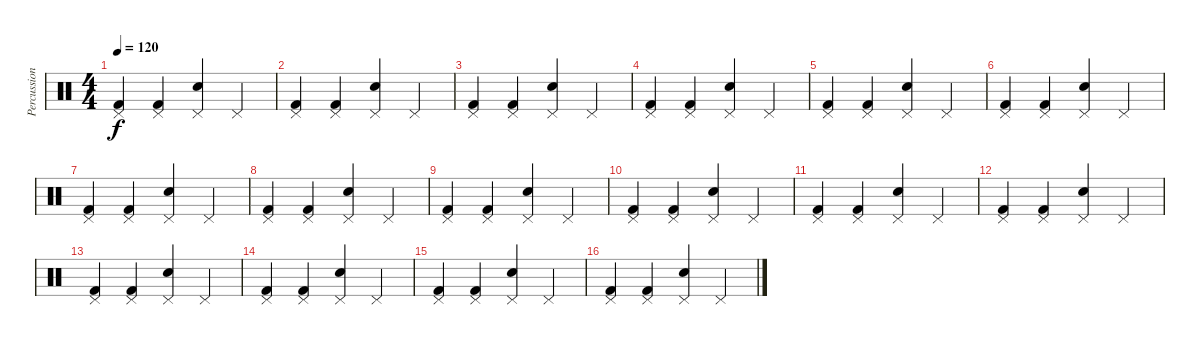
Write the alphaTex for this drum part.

\track ("Percussion" "Percussion") {instrument percussion}
\staff {score}
\articulation defaults
\ts (4 4)
\tempo 120
\clef neutral
\ks c
("Kick (hit) 2" "Pedal Hi-Hat (hit)").4{dy f} ("Kick (hit) 2" "Pedal Hi-Hat (hit)").4 ("Electric Snare (hit)" "Pedal Hi-Hat (hit)").4 "Pedal Hi-Hat (hit)".4 |
("Kick (hit) 2" "Pedal Hi-Hat (hit)").4 ("Kick (hit) 2" "Pedal Hi-Hat (hit)").4 ("Electric Snare (hit)" "Pedal Hi-Hat (hit)").4 "Pedal Hi-Hat (hit)".4 |
("Kick (hit) 2" "Pedal Hi-Hat (hit)").4 ("Kick (hit) 2" "Pedal Hi-Hat (hit)").4 ("Electric Snare (hit)" "Pedal Hi-Hat (hit)").4 "Pedal Hi-Hat (hit)".4 |
("Kick (hit) 2" "Pedal Hi-Hat (hit)").4 ("Kick (hit) 2" "Pedal Hi-Hat (hit)").4 ("Electric Snare (hit)" "Pedal Hi-Hat (hit)").4 "Pedal Hi-Hat (hit)".4 |
("Kick (hit) 2" "Pedal Hi-Hat (hit)").4 ("Kick (hit) 2" "Pedal Hi-Hat (hit)").4 ("Electric Snare (hit)" "Pedal Hi-Hat (hit)").4 "Pedal Hi-Hat (hit)".4 |
("Kick (hit) 2" "Pedal Hi-Hat (hit)").4 ("Kick (hit) 2" "Pedal Hi-Hat (hit)").4 ("Electric Snare (hit)" "Pedal Hi-Hat (hit)").4 "Pedal Hi-Hat (hit)".4 |
("Kick (hit) 2" "Pedal Hi-Hat (hit)").4 ("Kick (hit) 2" "Pedal Hi-Hat (hit)").4 ("Electric Snare (hit)" "Pedal Hi-Hat (hit)").4 "Pedal Hi-Hat (hit)".4 |
("Kick (hit) 2" "Pedal Hi-Hat (hit)").4 ("Kick (hit) 2" "Pedal Hi-Hat (hit)").4 ("Electric Snare (hit)" "Pedal Hi-Hat (hit)").4 "Pedal Hi-Hat (hit)".4 |
("Kick (hit) 2" "Pedal Hi-Hat (hit)").4 ("Kick (hit) 2" "Pedal Hi-Hat (hit)").4 ("Electric Snare (hit)" "Pedal Hi-Hat (hit)").4 "Pedal Hi-Hat (hit)".4 |
("Kick (hit) 2" "Pedal Hi-Hat (hit)").4 ("Kick (hit) 2" "Pedal Hi-Hat (hit)").4 ("Electric Snare (hit)" "Pedal Hi-Hat (hit)").4 "Pedal Hi-Hat (hit)".4 |
("Kick (hit) 2" "Pedal Hi-Hat (hit)").4 ("Kick (hit) 2" "Pedal Hi-Hat (hit)").4 ("Electric Snare (hit)" "Pedal Hi-Hat (hit)").4 "Pedal Hi-Hat (hit)".4 |
("Kick (hit) 2" "Pedal Hi-Hat (hit)").4 ("Kick (hit) 2" "Pedal Hi-Hat (hit)").4 ("Electric Snare (hit)" "Pedal Hi-Hat (hit)").4 "Pedal Hi-Hat (hit)".4 |
("Kick (hit) 2" "Pedal Hi-Hat (hit)").4 ("Kick (hit) 2" "Pedal Hi-Hat (hit)").4 ("Electric Snare (hit)" "Pedal Hi-Hat (hit)").4 "Pedal Hi-Hat (hit)".4 |
("Kick (hit) 2" "Pedal Hi-Hat (hit)").4 ("Kick (hit) 2" "Pedal Hi-Hat (hit)").4 ("Electric Snare (hit)" "Pedal Hi-Hat (hit)").4 "Pedal Hi-Hat (hit)".4 |
("Kick (hit) 2" "Pedal Hi-Hat (hit)").4 ("Kick (hit) 2" "Pedal Hi-Hat (hit)").4 ("Electric Snare (hit)" "Pedal Hi-Hat (hit)").4 "Pedal Hi-Hat (hit)".4 |
("Kick (hit) 2" "Pedal Hi-Hat (hit)").4 ("Kick (hit) 2" "Pedal Hi-Hat (hit)").4 ("Electric Snare (hit)" "Pedal Hi-Hat (hit)").4 "Pedal Hi-Hat (hit)".4
